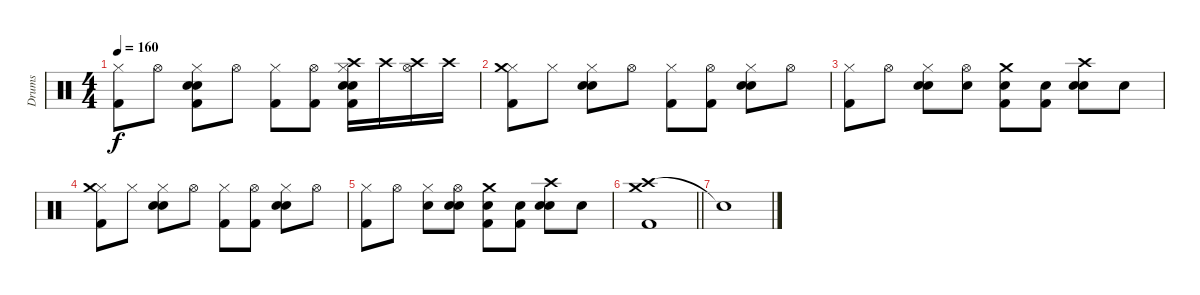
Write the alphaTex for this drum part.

\track ("Drums" "Drums") {instrument percussion}
\staff {score}
\articulation defaults
\ts (4 4)
\tempo 160
\clef neutral
\ks c
("Hi-Hat (closed)" "Kick (hit) 2").8{dy f} "Hi-Hat (open)".8 ("Hi-Hat (closed)" "Electric Snare (hit)" "Hand Clap (hit)" "Kick (hit) 2").8 "Hi-Hat (open)".8 ("Hi-Hat (closed)" "Kick (hit) 2").8 ("Hi-Hat (open)" "Kick (hit) 2").8 ("Hi-Hat (closed)" "Electric Snare (hit)" "Hand Clap (hit)" "Crash high (hit)" "Kick (hit) 2").16 "Crash high (hit)".16 ("Hi-Hat (open)" "Crash high (hit)").16 "Crash high (hit)".16 |
("Hi-Hat (closed)" "Crash medium (hit)" "Kick (hit) 2").8 "Hi-Hat (closed)".8 ("Hi-Hat (closed)" "Electric Snare (hit)" "Hand Clap (hit)").8 "Hi-Hat (open)".8 ("Hi-Hat (closed)" "Kick (hit) 2").8 ("Hi-Hat (open)" "Kick (hit) 2").8 ("Hi-Hat (closed)" "Electric Snare (hit)" "Hand Clap (hit)").8 "Hi-Hat (open)".8 |
("Hi-Hat (closed)" "Kick (hit) 2").8 "Hi-Hat (open)".8 ("Hi-Hat (closed)" "Electric Snare (hit)" "Hand Clap (hit)").8 ("Hi-Hat (open)" "Electric Snare (hit)").8 ("Crash medium (hit)" "Electric Snare (hit)" "Kick (hit) 2").8 ("Electric Snare (hit)" "Kick (hit) 2").8 ("Crash high (hit)" "Electric Snare (hit)" "Hand Clap (hit)").8 "Electric Snare (hit)".8 |
("Hi-Hat (closed)" "Crash medium (hit)" "Kick (hit) 2").8 "Hi-Hat (closed)".8 ("Hi-Hat (closed)" "Electric Snare (hit)" "Hand Clap (hit)").8 "Hi-Hat (open)".8 ("Hi-Hat (closed)" "Kick (hit) 2").8 ("Hi-Hat (open)" "Kick (hit) 2").8 ("Hi-Hat (closed)" "Electric Snare (hit)" "Hand Clap (hit)").8 "Hi-Hat (open)".8 |
("Hi-Hat (closed)" "Kick (hit) 2").8 "Hi-Hat (open)".8 ("Hi-Hat (closed)" "Electric Snare (hit)").8 ("Hi-Hat (open)" "Electric Snare (hit)" "Hand Clap (hit)").8 ("Crash medium (hit)" "Electric Snare (hit)" "Kick (hit) 2").8 ("Electric Snare (hit)" "Kick (hit) 2").8 ("Crash high (hit)" "Electric Snare (hit)" "Hand Clap (hit)").8 "Electric Snare (hit)".8 |
\barLineRight lightlight
("Crash high (hit)" "Crash medium (hit)" "Kick (hit) 2").1 |
"Snare (hit)"{t}.1
